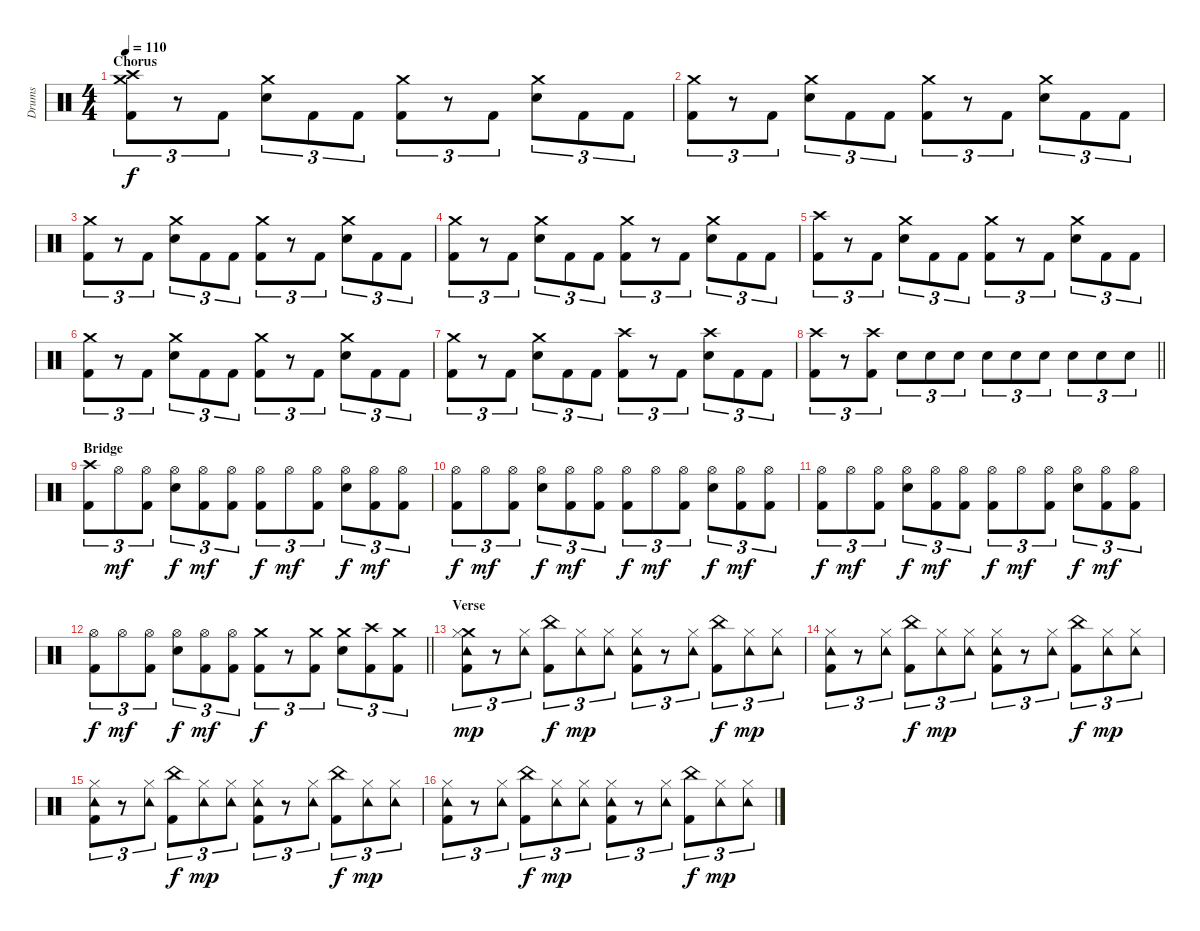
\track ("Drums" "Drums") {instrument percussion}
\staff {score}
\articulation defaults
\ts (4 4)
\section ("" "Chorus")
\tempo 110
\clef neutral
\ks c
("Crash medium (hit)" "Crash high (hit)" "Kick (hit) 2").8{tu (3 2) dy f} r.8{tu (3 2)} "Kick (hit) 2".8{tu (3 2)} ("Crash medium (hit)" "Electric Snare (hit)").8{tu (3 2)} "Kick (hit) 2".8{tu (3 2)} "Kick (hit) 2".8{tu (3 2)} ("Crash medium (hit)" "Kick (hit) 2").8{tu (3 2)} r.8{tu (3 2)} "Kick (hit) 2".8{tu (3 2)} ("Crash medium (hit)" "Electric Snare (hit)").8{tu (3 2)} "Kick (hit) 2".8{tu (3 2)} "Kick (hit) 2".8{tu (3 2)} |
("Crash medium (hit)" "Kick (hit) 2").8{tu (3 2)} r.8{tu (3 2)} "Kick (hit) 2".8{tu (3 2)} ("Crash medium (hit)" "Electric Snare (hit)").8{tu (3 2)} "Kick (hit) 2".8{tu (3 2)} "Kick (hit) 2".8{tu (3 2)} ("Crash medium (hit)" "Kick (hit) 2").8{tu (3 2)} r.8{tu (3 2)} "Kick (hit) 2".8{tu (3 2)} ("Crash medium (hit)" "Electric Snare (hit)").8{tu (3 2)} "Kick (hit) 2".8{tu (3 2)} "Kick (hit) 2".8{tu (3 2)} |
("Crash medium (hit)" "Kick (hit) 2").8{tu (3 2)} r.8{tu (3 2)} "Kick (hit) 2".8{tu (3 2)} ("Crash medium (hit)" "Electric Snare (hit)").8{tu (3 2)} "Kick (hit) 2".8{tu (3 2)} "Kick (hit) 2".8{tu (3 2)} ("Crash medium (hit)" "Kick (hit) 2").8{tu (3 2)} r.8{tu (3 2)} "Kick (hit) 2".8{tu (3 2)} ("Crash medium (hit)" "Electric Snare (hit)").8{tu (3 2)} "Kick (hit) 2".8{tu (3 2)} "Kick (hit) 2".8{tu (3 2)} |
("Crash medium (hit)" "Kick (hit) 2").8{tu (3 2)} r.8{tu (3 2)} "Kick (hit) 2".8{tu (3 2)} ("Crash medium (hit)" "Electric Snare (hit)").8{tu (3 2)} "Kick (hit) 2".8{tu (3 2)} "Kick (hit) 2".8{tu (3 2)} ("Crash medium (hit)" "Kick (hit) 2").8{tu (3 2)} r.8{tu (3 2)} "Kick (hit) 2".8{tu (3 2)} ("Crash medium (hit)" "Electric Snare (hit)").8{tu (3 2)} "Kick (hit) 2".8{tu (3 2)} "Kick (hit) 2".8{tu (3 2)} |
("Crash high (hit)" "Kick (hit) 2").8{tu (3 2)} r.8{tu (3 2)} "Kick (hit) 2".8{tu (3 2)} ("Crash medium (hit)" "Electric Snare (hit)").8{tu (3 2)} "Kick (hit) 2".8{tu (3 2)} "Kick (hit) 2".8{tu (3 2)} ("Crash medium (hit)" "Kick (hit) 2").8{tu (3 2)} r.8{tu (3 2)} "Kick (hit) 2".8{tu (3 2)} ("Crash medium (hit)" "Electric Snare (hit)").8{tu (3 2)} "Kick (hit) 2".8{tu (3 2)} "Kick (hit) 2".8{tu (3 2)} |
("Crash medium (hit)" "Kick (hit) 2").8{tu (3 2)} r.8{tu (3 2)} "Kick (hit) 2".8{tu (3 2)} ("Crash medium (hit)" "Electric Snare (hit)").8{tu (3 2)} "Kick (hit) 2".8{tu (3 2)} "Kick (hit) 2".8{tu (3 2)} ("Crash medium (hit)" "Kick (hit) 2").8{tu (3 2)} r.8{tu (3 2)} "Kick (hit) 2".8{tu (3 2)} ("Crash medium (hit)" "Electric Snare (hit)").8{tu (3 2)} "Kick (hit) 2".8{tu (3 2)} "Kick (hit) 2".8{tu (3 2)} |
("Crash medium (hit)" "Kick (hit) 2").8{tu (3 2)} r.8{tu (3 2)} "Kick (hit) 2".8{tu (3 2)} ("Crash medium (hit)" "Electric Snare (hit)").8{tu (3 2)} "Kick (hit) 2".8{tu (3 2)} "Kick (hit) 2".8{tu (3 2)} ("Crash high (hit)" "Kick (hit) 2").8{tu (3 2)} r.8{tu (3 2)} "Kick (hit) 2".8{tu (3 2)} ("Crash high (hit)" "Electric Snare (hit)").8{tu (3 2)} "Kick (hit) 2".8{tu (3 2)} "Kick (hit) 2".8{tu (3 2)} |
\barLineRight lightlight
("Crash high (hit)" "Kick (hit) 2").8{tu (3 2)} r.8{tu (3 2)} ("Crash high (hit)" "Kick (hit) 2").8{tu (3 2)} "Electric Snare (hit)".8{tu (3 2)} "Electric Snare (hit)".8{tu (3 2)} "Electric Snare (hit)".8{tu (3 2)} "Electric Snare (hit)".8{tu (3 2)} "Electric Snare (hit)".8{tu (3 2)} "Electric Snare (hit)".8{tu (3 2)} "Electric Snare (hit)".8{tu (3 2)} "Electric Snare (hit)".8{tu (3 2)} "Electric Snare (hit)".8{tu (3 2)} |
\section ("" "Bridge")
("Crash high (hit)" "Kick (hit) 2").8{tu (3 2)} "Hi-Hat (open)".8{tu (3 2) dy mf} ("Hi-Hat (open)" "Kick (hit) 2").8{tu (3 2)} ("Hi-Hat (open)" "Electric Snare (hit)").8{tu (3 2) dy f} ("Hi-Hat (open)" "Kick (hit) 2").8{tu (3 2) dy mf} ("Hi-Hat (open)" "Kick (hit) 2").8{tu (3 2)} ("Hi-Hat (open)" "Kick (hit) 2").8{tu (3 2) dy f} "Hi-Hat (open)".8{tu (3 2) dy mf} ("Hi-Hat (open)" "Kick (hit) 2").8{tu (3 2)} ("Hi-Hat (open)" "Electric Snare (hit)").8{tu (3 2) dy f} ("Hi-Hat (open)" "Kick (hit) 2").8{tu (3 2) dy mf} ("Hi-Hat (open)" "Kick (hit) 2").8{tu (3 2)} |
("Hi-Hat (open)" "Kick (hit) 2").8{tu (3 2) dy f} "Hi-Hat (open)".8{tu (3 2) dy mf} ("Hi-Hat (open)" "Kick (hit) 2").8{tu (3 2)} ("Hi-Hat (open)" "Electric Snare (hit)").8{tu (3 2) dy f} ("Hi-Hat (open)" "Kick (hit) 2").8{tu (3 2) dy mf} ("Hi-Hat (open)" "Kick (hit) 2").8{tu (3 2)} ("Hi-Hat (open)" "Kick (hit) 2").8{tu (3 2) dy f} "Hi-Hat (open)".8{tu (3 2) dy mf} ("Hi-Hat (open)" "Kick (hit) 2").8{tu (3 2)} ("Hi-Hat (open)" "Electric Snare (hit)").8{tu (3 2) dy f} ("Hi-Hat (open)" "Kick (hit) 2").8{tu (3 2) dy mf} ("Hi-Hat (open)" "Kick (hit) 2").8{tu (3 2)} |
("Hi-Hat (open)" "Kick (hit) 2").8{tu (3 2) dy f} "Hi-Hat (open)".8{tu (3 2) dy mf} ("Hi-Hat (open)" "Kick (hit) 2").8{tu (3 2)} ("Hi-Hat (open)" "Electric Snare (hit)").8{tu (3 2) dy f} ("Hi-Hat (open)" "Kick (hit) 2").8{tu (3 2) dy mf} ("Hi-Hat (open)" "Kick (hit) 2").8{tu (3 2)} ("Hi-Hat (open)" "Kick (hit) 2").8{tu (3 2) dy f} "Hi-Hat (open)".8{tu (3 2) dy mf} ("Hi-Hat (open)" "Kick (hit) 2").8{tu (3 2)} ("Hi-Hat (open)" "Electric Snare (hit)").8{tu (3 2) dy f} ("Hi-Hat (open)" "Kick (hit) 2").8{tu (3 2) dy mf} ("Hi-Hat (open)" "Kick (hit) 2").8{tu (3 2)} |
\barLineRight lightlight
("Hi-Hat (open)" "Kick (hit) 2").8{tu (3 2) dy f} "Hi-Hat (open)".8{tu (3 2) dy mf} ("Hi-Hat (open)" "Kick (hit) 2").8{tu (3 2)} ("Hi-Hat (open)" "Electric Snare (hit)").8{tu (3 2) dy f} ("Hi-Hat (open)" "Kick (hit) 2").8{tu (3 2) dy mf} ("Hi-Hat (open)" "Kick (hit) 2").8{tu (3 2)} ("Crash medium (hit)" "Kick (hit) 2").8{tu (3 2) dy f} r.8{tu (3 2)} ("Crash medium (hit)" "Kick (hit) 2").8{tu (3 2)} ("Crash medium (hit)" "Electric Snare (hit)").8{tu (3 2)} ("Crash high (hit)" "Kick (hit) 2").8{tu (3 2)} ("Crash medium (hit)" "Kick (hit) 2").8{tu (3 2)} |
\section ("" "Verse")
("Crash medium (hit)" "Hi-Hat (closed)" "Tambourine (hit)" "Kick (hit) 2").8{tu (3 2) dy mp} r.8{tu (3 2)} ("Hi-Hat (closed)" "Tambourine (hit)").8{tu (3 2)} ("China (hit)" "Kick (hit) 2").8{tu (3 2) dy f} ("Hi-Hat (closed)" "Tambourine (hit)").8{tu (3 2) dy mp} ("Hi-Hat (closed)" "Tambourine (hit)").8{tu (3 2)} ("Hi-Hat (closed)" "Tambourine (hit)" "Kick (hit) 2").8{tu (3 2)} r.8{tu (3 2)} ("Hi-Hat (closed)" "Tambourine (hit)").8{tu (3 2)} ("China (hit)" "Kick (hit) 2").8{tu (3 2) dy f} ("Hi-Hat (closed)" "Tambourine (hit)").8{tu (3 2) dy mp} ("Hi-Hat (closed)" "Tambourine (hit)").8{tu (3 2)} |
("Hi-Hat (closed)" "Tambourine (hit)" "Kick (hit) 2").8{tu (3 2)} r.8{tu (3 2)} ("Hi-Hat (closed)" "Tambourine (hit)").8{tu (3 2)} ("China (hit)" "Kick (hit) 2").8{tu (3 2) dy f} ("Hi-Hat (closed)" "Tambourine (hit)").8{tu (3 2) dy mp} ("Hi-Hat (closed)" "Tambourine (hit)").8{tu (3 2)} ("Hi-Hat (closed)" "Tambourine (hit)" "Kick (hit) 2").8{tu (3 2)} r.8{tu (3 2)} ("Hi-Hat (closed)" "Tambourine (hit)").8{tu (3 2)} ("China (hit)" "Kick (hit) 2").8{tu (3 2) dy f} ("Hi-Hat (closed)" "Tambourine (hit)").8{tu (3 2) dy mp} ("Hi-Hat (closed)" "Tambourine (hit)").8{tu (3 2)} |
("Hi-Hat (closed)" "Tambourine (hit)" "Kick (hit) 2").8{tu (3 2)} r.8{tu (3 2)} ("Hi-Hat (closed)" "Tambourine (hit)").8{tu (3 2)} ("China (hit)" "Kick (hit) 2").8{tu (3 2) dy f} ("Hi-Hat (closed)" "Tambourine (hit)").8{tu (3 2) dy mp} ("Hi-Hat (closed)" "Tambourine (hit)").8{tu (3 2)} ("Hi-Hat (closed)" "Tambourine (hit)" "Kick (hit) 2").8{tu (3 2)} r.8{tu (3 2)} ("Hi-Hat (closed)" "Tambourine (hit)").8{tu (3 2)} ("China (hit)" "Kick (hit) 2").8{tu (3 2) dy f} ("Hi-Hat (closed)" "Tambourine (hit)").8{tu (3 2) dy mp} ("Hi-Hat (closed)" "Tambourine (hit)").8{tu (3 2)} |
("Hi-Hat (closed)" "Tambourine (hit)" "Kick (hit) 2").8{tu (3 2)} r.8{tu (3 2)} ("Hi-Hat (closed)" "Tambourine (hit)").8{tu (3 2)} ("China (hit)" "Kick (hit) 2").8{tu (3 2) dy f} ("Hi-Hat (closed)" "Tambourine (hit)").8{tu (3 2) dy mp} ("Hi-Hat (closed)" "Tambourine (hit)").8{tu (3 2)} ("Hi-Hat (closed)" "Tambourine (hit)" "Kick (hit) 2").8{tu (3 2)} r.8{tu (3 2)} ("Hi-Hat (closed)" "Tambourine (hit)").8{tu (3 2)} ("China (hit)" "Kick (hit) 2").8{tu (3 2) dy f} ("Hi-Hat (closed)" "Tambourine (hit)").8{tu (3 2) dy mp} ("Hi-Hat (closed)" "Tambourine (hit)").8{tu (3 2)}
